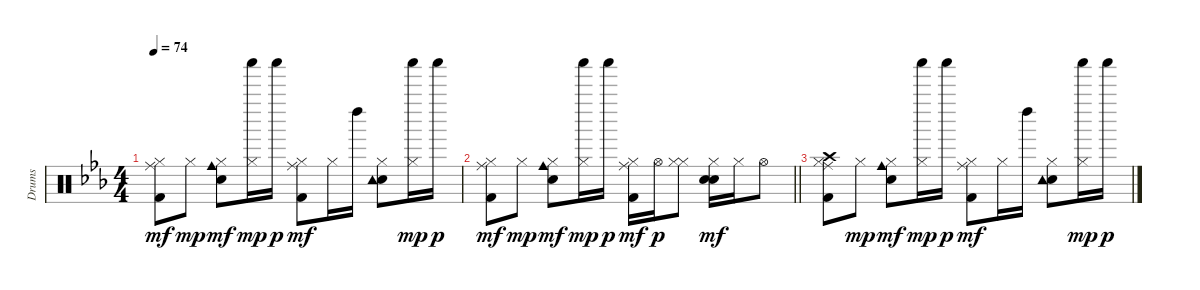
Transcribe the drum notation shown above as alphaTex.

\track ("Drums" "Drums") {instrument percussion}
\staff {score}
\articulation defaults
\ts (4 4)
\tempo 74
\clef neutral
\ks eb
("Ride (middle)" "Hi-Hat (closed)" "Kick (hit) 2").8{dy mf} "Hi-Hat (closed)".8{dy mp} ("Hi-Hat (closed)" "Electric Snare (hit)" "Cowbell medium (hit)").8{dy mf} ("Shaker (hit)" "Hi-Hat (closed)").16{dy mp} "Shaker (hit)".16{dy p} ("Ride (middle)" "Hi-Hat (closed)" "Kick (hit) 2").8{dy mf} "Hi-Hat (closed)".16 "Left Maraca (hit)".16 ("Hi-Hat (closed)" "Electric Snare (hit)" "Tambourine (hit)").8 ("Shaker (hit)" "Hi-Hat (closed)").16{dy mp} "Shaker (hit)".16{dy p} |
\barLineRight lightlight
("Ride (middle)" "Hi-Hat (closed)" "Kick (hit) 2").8{dy mf} "Hi-Hat (closed)".8{dy mp} ("Hi-Hat (closed)" "Electric Snare (hit)" "Cowbell medium (hit)").8{dy mf} ("Shaker (hit)" "Hi-Hat (closed)").16{dy mp} "Shaker (hit)".16{dy p} ("Ride (middle)" "Hi-Hat (closed)" "Kick (hit) 2").16{dy mf} "Hi-Hat (open)".16{dy p} ("Hi-Hat (closed)" "Hi-Hat (closed)").8 ("Hi-Hat (closed)" "Electric Snare (hit)" "Hand Clap (hit)").16{dy mf} "Hi-Hat (closed)".16 "Hi-Hat (open)".8 |
("Crash high (hit)" "Hi-Hat (closed)" "Ride (middle)" "Kick (hit) 2").8 "Hi-Hat (closed)".8{dy mp} ("Hi-Hat (closed)" "Electric Snare (hit)" "Cowbell medium (hit)").8{dy mf} ("Shaker (hit)" "Hi-Hat (closed)").16{dy mp} "Shaker (hit)".16{dy p} ("Ride (middle)" "Hi-Hat (closed)" "Kick (hit) 2").8{dy mf} "Hi-Hat (closed)".16 "Left Maraca (hit)".16 ("Hi-Hat (closed)" "Electric Snare (hit)" "Tambourine (hit)").8 ("Shaker (hit)" "Hi-Hat (closed)").16{dy mp} "Shaker (hit)".16{dy p}
